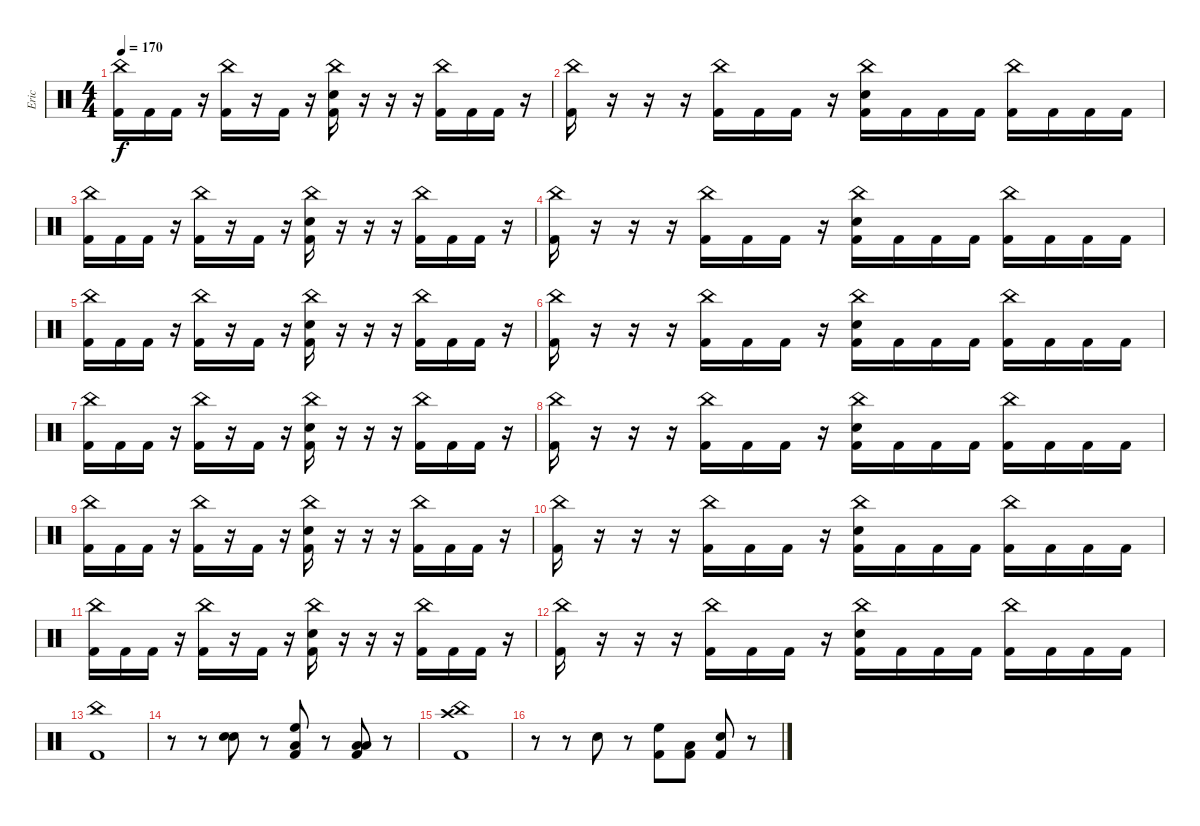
\track ("Eric" "Eric") {instrument percussion}
\staff {score}
\articulation defaults
\ts (4 4)
\tempo 170
\clef neutral
\ks c
("China (hit)" "Kick (hit) 2").16{dy f} "Kick (hit) 2".16 "Kick (hit) 2".16 r.16 ("China (hit)" "Kick (hit) 2").16 r.16 "Kick (hit) 2".16 r.16 ("China (hit)" "Electric Snare (hit)" "Kick (hit) 2").16 r.16 r.16 r.16 ("China (hit)" "Kick (hit) 2").16 "Kick (hit) 2".16 "Kick (hit) 2".16 r.16 |
("China (hit)" "Kick (hit) 2").16 r.16 r.16 r.16 ("China (hit)" "Kick (hit) 2").16 "Kick (hit) 2".16 "Kick (hit) 2".16 r.16 ("China (hit)" "Electric Snare (hit)" "Kick (hit) 2").16 "Kick (hit) 2".16 "Kick (hit) 2".16 "Kick (hit) 2".16 ("China (hit)" "Kick (hit) 2").16 "Kick (hit) 2".16 "Kick (hit) 2".16 "Kick (hit) 2".16 |
("China (hit)" "Kick (hit) 2").16 "Kick (hit) 2".16 "Kick (hit) 2".16 r.16 ("China (hit)" "Kick (hit) 2").16 r.16 "Kick (hit) 2".16 r.16 ("China (hit)" "Electric Snare (hit)" "Kick (hit) 2").16 r.16 r.16 r.16 ("China (hit)" "Kick (hit) 2").16 "Kick (hit) 2".16 "Kick (hit) 2".16 r.16 |
("China (hit)" "Kick (hit) 2").16 r.16 r.16 r.16 ("China (hit)" "Kick (hit) 2").16 "Kick (hit) 2".16 "Kick (hit) 2".16 r.16 ("China (hit)" "Electric Snare (hit)" "Kick (hit) 2").16 "Kick (hit) 2".16 "Kick (hit) 2".16 "Kick (hit) 2".16 ("China (hit)" "Kick (hit) 2").16 "Kick (hit) 2".16 "Kick (hit) 2".16 "Kick (hit) 2".16 |
("China (hit)" "Kick (hit) 2").16 "Kick (hit) 2".16 "Kick (hit) 2".16 r.16 ("China (hit)" "Kick (hit) 2").16 r.16 "Kick (hit) 2".16 r.16 ("China (hit)" "Electric Snare (hit)" "Kick (hit) 2").16 r.16 r.16 r.16 ("China (hit)" "Kick (hit) 2").16 "Kick (hit) 2".16 "Kick (hit) 2".16 r.16 |
("China (hit)" "Kick (hit) 2").16 r.16 r.16 r.16 ("China (hit)" "Kick (hit) 2").16 "Kick (hit) 2".16 "Kick (hit) 2".16 r.16 ("China (hit)" "Electric Snare (hit)" "Kick (hit) 2").16 "Kick (hit) 2".16 "Kick (hit) 2".16 "Kick (hit) 2".16 ("China (hit)" "Kick (hit) 2").16 "Kick (hit) 2".16 "Kick (hit) 2".16 "Kick (hit) 2".16 |
("China (hit)" "Kick (hit) 2").16 "Kick (hit) 2".16 "Kick (hit) 2".16 r.16 ("China (hit)" "Kick (hit) 2").16 r.16 "Kick (hit) 2".16 r.16 ("China (hit)" "Electric Snare (hit)" "Kick (hit) 2").16 r.16 r.16 r.16 ("China (hit)" "Kick (hit) 2").16 "Kick (hit) 2".16 "Kick (hit) 2".16 r.16 |
("China (hit)" "Kick (hit) 2").16 r.16 r.16 r.16 ("China (hit)" "Kick (hit) 2").16 "Kick (hit) 2".16 "Kick (hit) 2".16 r.16 ("China (hit)" "Electric Snare (hit)" "Kick (hit) 2").16 "Kick (hit) 2".16 "Kick (hit) 2".16 "Kick (hit) 2".16 ("China (hit)" "Kick (hit) 2").16 "Kick (hit) 2".16 "Kick (hit) 2".16 "Kick (hit) 2".16 |
("China (hit)" "Kick (hit) 2").16 "Kick (hit) 2".16 "Kick (hit) 2".16 r.16 ("China (hit)" "Kick (hit) 2").16 r.16 "Kick (hit) 2".16 r.16 ("China (hit)" "Electric Snare (hit)" "Kick (hit) 2").16 r.16 r.16 r.16 ("China (hit)" "Kick (hit) 2").16 "Kick (hit) 2".16 "Kick (hit) 2".16 r.16 |
("China (hit)" "Kick (hit) 2").16 r.16 r.16 r.16 ("China (hit)" "Kick (hit) 2").16 "Kick (hit) 2".16 "Kick (hit) 2".16 r.16 ("China (hit)" "Electric Snare (hit)" "Kick (hit) 2").16 "Kick (hit) 2".16 "Kick (hit) 2".16 "Kick (hit) 2".16 ("China (hit)" "Kick (hit) 2").16 "Kick (hit) 2".16 "Kick (hit) 2".16 "Kick (hit) 2".16 |
("China (hit)" "Kick (hit) 2").16 "Kick (hit) 2".16 "Kick (hit) 2".16 r.16 ("China (hit)" "Kick (hit) 2").16 r.16 "Kick (hit) 2".16 r.16 ("China (hit)" "Electric Snare (hit)" "Kick (hit) 2").16 r.16 r.16 r.16 ("China (hit)" "Kick (hit) 2").16 "Kick (hit) 2".16 "Kick (hit) 2".16 r.16 |
("China (hit)" "Kick (hit) 2").16 r.16 r.16 r.16 ("China (hit)" "Kick (hit) 2").16 "Kick (hit) 2".16 "Kick (hit) 2".16 r.16 ("China (hit)" "Electric Snare (hit)" "Kick (hit) 2").16 "Kick (hit) 2".16 "Kick (hit) 2".16 "Kick (hit) 2".16 ("China (hit)" "Kick (hit) 2").16 "Kick (hit) 2".16 "Kick (hit) 2".16 "Kick (hit) 2".16 |
("China (hit)" "Kick (hit) 2").1 |
r.8 r.8 ("Electric Snare (hit)" "Electric Snare (hit)").8 r.8 ("High Floor Tom (hit)" "Low Tom (hit)" "Kick (hit) 2").8 r.8 ("Low Tom (hit)" "Low Floor Tom (hit)" "Kick (hit) 2").8 r.8 |
("China (hit)" "Crash high (hit)" "Kick (hit) 2").1 |
r.8 r.8 "Electric Snare (hit)".8 r.8 ("High Floor Tom (hit)" "Kick (hit) 2").8 ("Low Tom (hit)" "Kick (hit) 2").8 ("Electric Snare (hit)" "Kick (hit) 2").8 r.8
